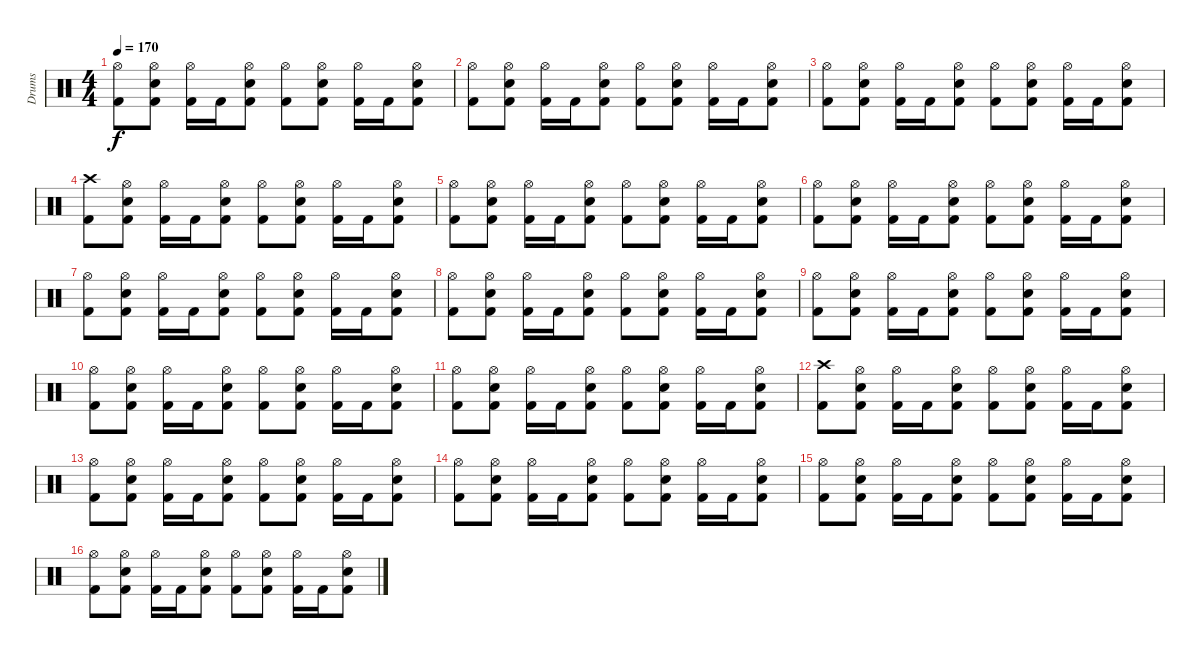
\track ("Drums" "Drums") {instrument percussion}
\staff {score}
\articulation defaults
\ts (4 4)
\tempo 170
\clef neutral
\ks c
("Hi-Hat (open)" "Kick (hit) 2").8{dy f} ("Hi-Hat (open)" "Snare (hit) 2" "Kick (hit) 2").8 ("Hi-Hat (open)" "Kick (hit) 2").16 "Kick (hit) 2".16 ("Hi-Hat (open)" "Snare (hit) 2" "Kick (hit) 2").8 ("Hi-Hat (open)" "Kick (hit) 2").8 ("Hi-Hat (open)" "Snare (hit) 2" "Kick (hit) 2").8 ("Hi-Hat (open)" "Kick (hit) 2").16 "Kick (hit) 2".16 ("Hi-Hat (open)" "Snare (hit) 2" "Kick (hit) 2").8 |
("Hi-Hat (open)" "Kick (hit) 2").8 ("Hi-Hat (open)" "Snare (hit) 2" "Kick (hit) 2").8 ("Hi-Hat (open)" "Kick (hit) 2").16 "Kick (hit) 2".16 ("Hi-Hat (open)" "Snare (hit) 2" "Kick (hit) 2").8 ("Hi-Hat (open)" "Kick (hit) 2").8 ("Hi-Hat (open)" "Snare (hit) 2" "Kick (hit) 2").8 ("Hi-Hat (open)" "Kick (hit) 2").16 "Kick (hit) 2".16 ("Hi-Hat (open)" "Snare (hit) 2" "Kick (hit) 2").8 |
("Hi-Hat (open)" "Kick (hit) 2").8 ("Hi-Hat (open)" "Snare (hit) 2" "Kick (hit) 2").8 ("Hi-Hat (open)" "Kick (hit) 2").16 "Kick (hit) 2".16 ("Hi-Hat (open)" "Snare (hit) 2" "Kick (hit) 2").8 ("Hi-Hat (open)" "Kick (hit) 2").8 ("Hi-Hat (open)" "Snare (hit) 2" "Kick (hit) 2").8 ("Hi-Hat (open)" "Kick (hit) 2").16 "Kick (hit) 2".16 ("Hi-Hat (open)" "Snare (hit) 2" "Kick (hit) 2").8 |
("Crash high (hit)" "Kick (hit) 2").8 ("Hi-Hat (open)" "Snare (hit) 2" "Kick (hit) 2").8 ("Hi-Hat (open)" "Kick (hit) 2").16 "Kick (hit) 2".16 ("Hi-Hat (open)" "Snare (hit) 2" "Kick (hit) 2").8 ("Hi-Hat (open)" "Kick (hit) 2").8 ("Hi-Hat (open)" "Snare (hit) 2" "Kick (hit) 2").8 ("Hi-Hat (open)" "Kick (hit) 2").16 "Kick (hit) 2".16 ("Hi-Hat (open)" "Snare (hit) 2" "Kick (hit) 2").8 |
("Hi-Hat (open)" "Kick (hit) 2").8 ("Hi-Hat (open)" "Snare (hit) 2" "Kick (hit) 2").8 ("Hi-Hat (open)" "Kick (hit) 2").16 "Kick (hit) 2".16 ("Hi-Hat (open)" "Snare (hit) 2" "Kick (hit) 2").8 ("Hi-Hat (open)" "Kick (hit) 2").8 ("Hi-Hat (open)" "Snare (hit) 2" "Kick (hit) 2").8 ("Hi-Hat (open)" "Kick (hit) 2").16 "Kick (hit) 2".16 ("Hi-Hat (open)" "Snare (hit) 2" "Kick (hit) 2").8 |
("Hi-Hat (open)" "Kick (hit) 2").8 ("Hi-Hat (open)" "Snare (hit) 2" "Kick (hit) 2").8 ("Hi-Hat (open)" "Kick (hit) 2").16 "Kick (hit) 2".16 ("Hi-Hat (open)" "Snare (hit) 2" "Kick (hit) 2").8 ("Hi-Hat (open)" "Kick (hit) 2").8 ("Hi-Hat (open)" "Snare (hit) 2" "Kick (hit) 2").8 ("Hi-Hat (open)" "Kick (hit) 2").16 "Kick (hit) 2".16 ("Hi-Hat (open)" "Snare (hit) 2" "Kick (hit) 2").8 |
("Hi-Hat (open)" "Kick (hit) 2").8 ("Hi-Hat (open)" "Snare (hit) 2" "Kick (hit) 2").8 ("Hi-Hat (open)" "Kick (hit) 2").16 "Kick (hit) 2".16 ("Hi-Hat (open)" "Snare (hit) 2" "Kick (hit) 2").8 ("Hi-Hat (open)" "Kick (hit) 2").8 ("Hi-Hat (open)" "Snare (hit) 2" "Kick (hit) 2").8 ("Hi-Hat (open)" "Kick (hit) 2").16 "Kick (hit) 2".16 ("Hi-Hat (open)" "Snare (hit) 2" "Kick (hit) 2").8 |
("Hi-Hat (open)" "Kick (hit) 2").8 ("Hi-Hat (open)" "Snare (hit) 2" "Kick (hit) 2").8 ("Hi-Hat (open)" "Kick (hit) 2").16 "Kick (hit) 2".16 ("Hi-Hat (open)" "Snare (hit) 2" "Kick (hit) 2").8 ("Hi-Hat (open)" "Kick (hit) 2").8 ("Hi-Hat (open)" "Snare (hit) 2" "Kick (hit) 2").8 ("Hi-Hat (open)" "Kick (hit) 2").16 "Kick (hit) 2".16 ("Hi-Hat (open)" "Snare (hit) 2" "Kick (hit) 2").8 |
("Hi-Hat (open)" "Kick (hit) 2").8 ("Hi-Hat (open)" "Snare (hit) 2" "Kick (hit) 2").8 ("Hi-Hat (open)" "Kick (hit) 2").16 "Kick (hit) 2".16 ("Hi-Hat (open)" "Snare (hit) 2" "Kick (hit) 2").8 ("Hi-Hat (open)" "Kick (hit) 2").8 ("Hi-Hat (open)" "Snare (hit) 2" "Kick (hit) 2").8 ("Hi-Hat (open)" "Kick (hit) 2").16 "Kick (hit) 2".16 ("Hi-Hat (open)" "Snare (hit) 2" "Kick (hit) 2").8 |
("Hi-Hat (open)" "Kick (hit) 2").8 ("Hi-Hat (open)" "Snare (hit) 2" "Kick (hit) 2").8 ("Hi-Hat (open)" "Kick (hit) 2").16 "Kick (hit) 2".16 ("Hi-Hat (open)" "Snare (hit) 2" "Kick (hit) 2").8 ("Hi-Hat (open)" "Kick (hit) 2").8 ("Hi-Hat (open)" "Snare (hit) 2" "Kick (hit) 2").8 ("Hi-Hat (open)" "Kick (hit) 2").16 "Kick (hit) 2".16 ("Hi-Hat (open)" "Snare (hit) 2" "Kick (hit) 2").8 |
("Hi-Hat (open)" "Kick (hit) 2").8 ("Hi-Hat (open)" "Snare (hit) 2" "Kick (hit) 2").8 ("Hi-Hat (open)" "Kick (hit) 2").16 "Kick (hit) 2".16 ("Hi-Hat (open)" "Snare (hit) 2" "Kick (hit) 2").8 ("Hi-Hat (open)" "Kick (hit) 2").8 ("Hi-Hat (open)" "Snare (hit) 2" "Kick (hit) 2").8 ("Hi-Hat (open)" "Kick (hit) 2").16 "Kick (hit) 2".16 ("Hi-Hat (open)" "Snare (hit) 2" "Kick (hit) 2").8 |
("Crash high (hit)" "Kick (hit) 2").8 ("Hi-Hat (open)" "Snare (hit) 2" "Kick (hit) 2").8 ("Hi-Hat (open)" "Kick (hit) 2").16 "Kick (hit) 2".16 ("Hi-Hat (open)" "Snare (hit) 2" "Kick (hit) 2").8 ("Hi-Hat (open)" "Kick (hit) 2").8 ("Hi-Hat (open)" "Snare (hit) 2" "Kick (hit) 2").8 ("Hi-Hat (open)" "Kick (hit) 2").16 "Kick (hit) 2".16 ("Hi-Hat (open)" "Snare (hit) 2" "Kick (hit) 2").8 |
("Hi-Hat (open)" "Kick (hit) 2").8 ("Hi-Hat (open)" "Snare (hit) 2" "Kick (hit) 2").8 ("Hi-Hat (open)" "Kick (hit) 2").16 "Kick (hit) 2".16 ("Hi-Hat (open)" "Snare (hit) 2" "Kick (hit) 2").8 ("Hi-Hat (open)" "Kick (hit) 2").8 ("Hi-Hat (open)" "Snare (hit) 2" "Kick (hit) 2").8 ("Hi-Hat (open)" "Kick (hit) 2").16 "Kick (hit) 2".16 ("Hi-Hat (open)" "Snare (hit) 2" "Kick (hit) 2").8 |
("Hi-Hat (open)" "Kick (hit) 2").8 ("Hi-Hat (open)" "Snare (hit) 2" "Kick (hit) 2").8 ("Hi-Hat (open)" "Kick (hit) 2").16 "Kick (hit) 2".16 ("Hi-Hat (open)" "Snare (hit) 2" "Kick (hit) 2").8 ("Hi-Hat (open)" "Kick (hit) 2").8 ("Hi-Hat (open)" "Snare (hit) 2" "Kick (hit) 2").8 ("Hi-Hat (open)" "Kick (hit) 2").16 "Kick (hit) 2".16 ("Hi-Hat (open)" "Snare (hit) 2" "Kick (hit) 2").8 |
("Hi-Hat (open)" "Kick (hit) 2").8 ("Hi-Hat (open)" "Snare (hit) 2" "Kick (hit) 2").8 ("Hi-Hat (open)" "Kick (hit) 2").16 "Kick (hit) 2".16 ("Hi-Hat (open)" "Snare (hit) 2" "Kick (hit) 2").8 ("Hi-Hat (open)" "Kick (hit) 2").8 ("Hi-Hat (open)" "Snare (hit) 2" "Kick (hit) 2").8 ("Hi-Hat (open)" "Kick (hit) 2").16 "Kick (hit) 2".16 ("Hi-Hat (open)" "Snare (hit) 2" "Kick (hit) 2").8 |
("Hi-Hat (open)" "Kick (hit) 2").8 ("Hi-Hat (open)" "Snare (hit) 2" "Kick (hit) 2").8 ("Hi-Hat (open)" "Kick (hit) 2").16 "Kick (hit) 2".16 ("Hi-Hat (open)" "Snare (hit) 2" "Kick (hit) 2").8 ("Hi-Hat (open)" "Kick (hit) 2").8 ("Hi-Hat (open)" "Snare (hit) 2" "Kick (hit) 2").8 ("Hi-Hat (open)" "Kick (hit) 2").16 "Kick (hit) 2".16 ("Hi-Hat (open)" "Snare (hit) 2" "Kick (hit) 2").8
